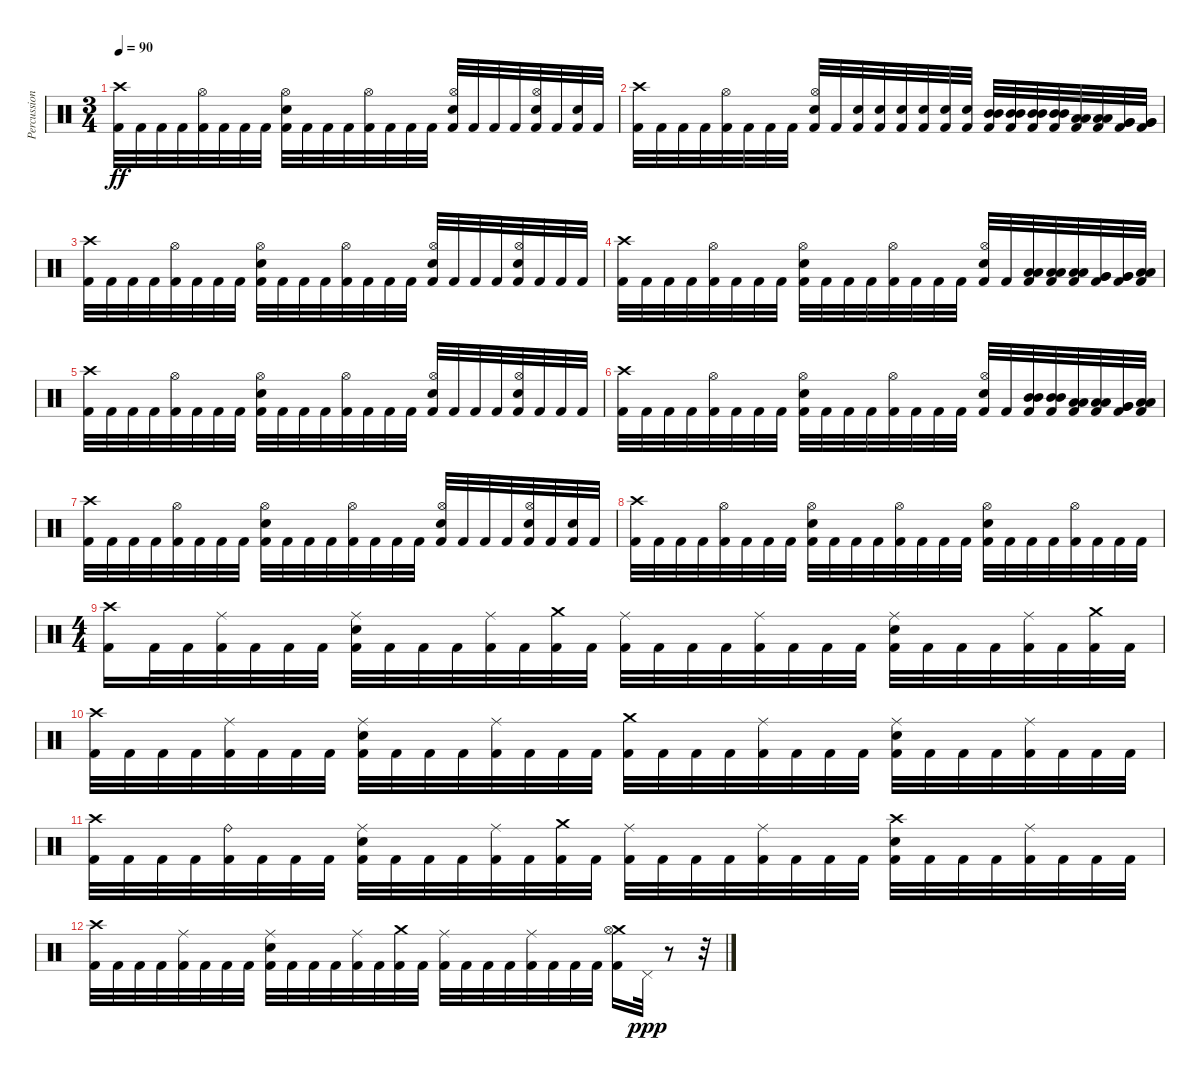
\track ("Percussion" "Percussion") {instrument percussion}
\staff {score}
\articulation defaults
\ts (3 4)
\tempo 90
\clef neutral
\ks c
("Crash high (hit)" "Kick (hit) 2").32{dy ff} "Kick (hit) 2".32 "Kick (hit) 2".32 "Kick (hit) 2".32 ("Hi-Hat (open)" "Kick (hit) 2").32 "Kick (hit) 2".32 "Kick (hit) 2".32 "Kick (hit) 2".32 ("Hi-Hat (open)" "Electric Snare (hit)" "Kick (hit) 2").32 "Kick (hit) 2".32 "Kick (hit) 2".32 "Kick (hit) 2".32 ("Hi-Hat (open)" "Kick (hit) 2").32 "Kick (hit) 2".32 "Kick (hit) 2".32 "Kick (hit) 2".32 ("Hi-Hat (open)" "Electric Snare (hit)" "Kick (hit) 2").32 "Kick (hit) 2".32 "Kick (hit) 2".32 "Kick (hit) 2".32 ("Hi-Hat (open)" "Electric Snare (hit)" "Kick (hit) 2").32 "Kick (hit) 2".32 ("Electric Snare (hit)" "Kick (hit) 2").32 "Kick (hit) 2".32 |
("Crash high (hit)" "Kick (hit) 2").32 "Kick (hit) 2".32 "Kick (hit) 2".32 "Kick (hit) 2".32 ("Hi-Hat (open)" "Kick (hit) 2").32 "Kick (hit) 2".32 "Kick (hit) 2".32 "Kick (hit) 2".32 ("Hi-Hat (open)" "Electric Snare (hit)" "Kick (hit) 2").32 "Kick (hit) 2".32 ("Electric Snare (hit)" "Kick (hit) 2").32 ("Electric Snare (hit)" "Kick (hit) 2").32 ("Electric Snare (hit)" "Kick (hit) 2").32 ("Electric Snare (hit)" "Kick (hit) 2").32 ("Electric Snare (hit)" "Kick (hit) 2").32 ("Electric Snare (hit)" "Kick (hit) 2").32 ("Mid Tom (hit)" "Mid Tom (hit)" "Kick (hit) 2").32 ("Mid Tom (hit)" "Mid Tom (hit)" "Kick (hit) 2").32 ("Mid Tom (hit)" "Mid Tom (hit)" "Kick (hit) 2").32 ("Mid Tom (hit)" "Mid Tom (hit)" "Kick (hit) 2").32 ("Low Tom (hit)" "Low Tom (hit)" "Kick (hit) 2").32 ("Low Tom (hit)" "Low Tom (hit)" "Kick (hit) 2").32 ("Very Low Tom (hit)" "Very Low Tom (hit)" "Kick (hit) 2").32 ("Very Low Tom (hit)" "Very Low Tom (hit)" "Kick (hit) 2").32 |
("Crash high (hit)" "Kick (hit) 2").32 "Kick (hit) 2".32 "Kick (hit) 2".32 "Kick (hit) 2".32 ("Hi-Hat (open)" "Kick (hit) 2").32 "Kick (hit) 2".32 "Kick (hit) 2".32 "Kick (hit) 2".32 ("Hi-Hat (open)" "Electric Snare (hit)" "Kick (hit) 2").32 "Kick (hit) 2".32 "Kick (hit) 2".32 "Kick (hit) 2".32 ("Hi-Hat (open)" "Kick (hit) 2").32 "Kick (hit) 2".32 "Kick (hit) 2".32 "Kick (hit) 2".32 ("Hi-Hat (open)" "Electric Snare (hit)" "Kick (hit) 2").32 "Kick (hit) 2".32 "Kick (hit) 2".32 "Kick (hit) 2".32 ("Hi-Hat (open)" "Electric Snare (hit)" "Kick (hit) 2").32 "Kick (hit) 2".32 "Kick (hit) 2".32 "Kick (hit) 2".32 |
("Crash high (hit)" "Kick (hit) 2").32 "Kick (hit) 2".32 "Kick (hit) 2".32 "Kick (hit) 2".32 ("Hi-Hat (open)" "Kick (hit) 2").32 "Kick (hit) 2".32 "Kick (hit) 2".32 "Kick (hit) 2".32 ("Hi-Hat (open)" "Electric Snare (hit)" "Kick (hit) 2").32 "Kick (hit) 2".32 "Kick (hit) 2".32 "Kick (hit) 2".32 ("Hi-Hat (open)" "Kick (hit) 2").32 "Kick (hit) 2".32 "Kick (hit) 2".32 "Kick (hit) 2".32 ("Hi-Hat (open)" "Electric Snare (hit)" "Kick (hit) 2").32 "Kick (hit) 2".32 ("Low Tom (hit)" "Low Tom (hit)" "Kick (hit) 2").32 ("Low Tom (hit)" "Low Tom (hit)" "Kick (hit) 2").32 ("Low Tom (hit)" "Low Tom (hit)" "Kick (hit) 2").32 ("Very Low Tom (hit)" "Very Low Tom (hit)" "Kick (hit) 2").32 ("Very Low Tom (hit)" "Very Low Tom (hit)" "Kick (hit) 2").32 ("Low Floor Tom (hit)" "Low Floor Tom (hit)" "Kick (hit) 2").32 |
("Crash high (hit)" "Kick (hit) 2").32 "Kick (hit) 2".32 "Kick (hit) 2".32 "Kick (hit) 2".32 ("Hi-Hat (open)" "Kick (hit) 2").32 "Kick (hit) 2".32 "Kick (hit) 2".32 "Kick (hit) 2".32 ("Hi-Hat (open)" "Electric Snare (hit)" "Kick (hit) 2").32 "Kick (hit) 2".32 "Kick (hit) 2".32 "Kick (hit) 2".32 ("Hi-Hat (open)" "Kick (hit) 2").32 "Kick (hit) 2".32 "Kick (hit) 2".32 "Kick (hit) 2".32 ("Hi-Hat (open)" "Electric Snare (hit)" "Kick (hit) 2").32 "Kick (hit) 2".32 "Kick (hit) 2".32 "Kick (hit) 2".32 ("Hi-Hat (open)" "Electric Snare (hit)" "Kick (hit) 2").32 "Kick (hit) 2".32 "Kick (hit) 2".32 "Kick (hit) 2".32 |
("Crash high (hit)" "Kick (hit) 2").32 "Kick (hit) 2".32 "Kick (hit) 2".32 "Kick (hit) 2".32 ("Hi-Hat (open)" "Kick (hit) 2").32 "Kick (hit) 2".32 "Kick (hit) 2".32 "Kick (hit) 2".32 ("Hi-Hat (open)" "Electric Snare (hit)" "Kick (hit) 2").32 "Kick (hit) 2".32 "Kick (hit) 2".32 "Kick (hit) 2".32 ("Hi-Hat (open)" "Kick (hit) 2").32 "Kick (hit) 2".32 "Kick (hit) 2".32 "Kick (hit) 2".32 ("Hi-Hat (open)" "Electric Snare (hit)" "Kick (hit) 2").32 "Kick (hit) 2".32 ("Mid Tom (hit)" "Mid Tom (hit)" "Kick (hit) 2").32 ("Mid Tom (hit)" "Mid Tom (hit)" "Kick (hit) 2").32 ("Low Tom (hit)" "Low Tom (hit)" "Kick (hit) 2").32 ("Low Tom (hit)" "Low Tom (hit)" "Kick (hit) 2").32 ("Very Low Tom (hit)" "Very Low Tom (hit)" "Kick (hit) 2").32 ("Low Floor Tom (hit)" "Low Floor Tom (hit)" "Kick (hit) 2").32 |
("Crash high (hit)" "Kick (hit) 2").32 "Kick (hit) 2".32 "Kick (hit) 2".32 "Kick (hit) 2".32 ("Hi-Hat (open)" "Kick (hit) 2").32 "Kick (hit) 2".32 "Kick (hit) 2".32 "Kick (hit) 2".32 ("Hi-Hat (open)" "Electric Snare (hit)" "Kick (hit) 2").32 "Kick (hit) 2".32 "Kick (hit) 2".32 "Kick (hit) 2".32 ("Hi-Hat (open)" "Kick (hit) 2").32 "Kick (hit) 2".32 "Kick (hit) 2".32 "Kick (hit) 2".32 ("Hi-Hat (open)" "Electric Snare (hit)" "Kick (hit) 2").32 "Kick (hit) 2".32 "Kick (hit) 2".32 "Kick (hit) 2".32 ("Hi-Hat (open)" "Electric Snare (hit)" "Kick (hit) 2").32 "Kick (hit) 2".32 ("Electric Snare (hit)" "Kick (hit) 2").32 "Kick (hit) 2".32 |
("Crash high (hit)" "Kick (hit) 2").32 "Kick (hit) 2".32 "Kick (hit) 2".32 "Kick (hit) 2".32 ("Hi-Hat (open)" "Kick (hit) 2").32 "Kick (hit) 2".32 "Kick (hit) 2".32 "Kick (hit) 2".32 ("Hi-Hat (open)" "Electric Snare (hit)" "Kick (hit) 2").32 "Kick (hit) 2".32 "Kick (hit) 2".32 "Kick (hit) 2".32 ("Hi-Hat (open)" "Kick (hit) 2").32 "Kick (hit) 2".32 "Kick (hit) 2".32 "Kick (hit) 2".32 ("Hi-Hat (open)" "Electric Snare (hit)" "Kick (hit) 2").32 "Kick (hit) 2".32 "Kick (hit) 2".32 "Kick (hit) 2".32 ("Hi-Hat (open)" "Kick (hit) 2").32 "Kick (hit) 2".32 "Kick (hit) 2".32 "Kick (hit) 2".32 |
\ts (4 4)
("Crash high (hit)" "Kick (hit) 2").16 "Kick (hit) 2".32 "Kick (hit) 2".32 ("Ride (middle)" "Kick (hit) 2").32 "Kick (hit) 2".32 "Kick (hit) 2".32 "Kick (hit) 2".32 ("Ride (middle)" "Electric Snare (hit)" "Kick (hit) 2").32 "Kick (hit) 2".32 "Kick (hit) 2".32 "Kick (hit) 2".32 ("Ride (middle)" "Kick (hit) 2").32 "Kick (hit) 2".32 ("Crash medium (hit)" "Kick (hit) 2").32 "Kick (hit) 2".32 ("Ride (middle)" "Kick (hit) 2").32 "Kick (hit) 2".32 "Kick (hit) 2".32 "Kick (hit) 2".32 ("Ride (middle)" "Kick (hit) 2").32 "Kick (hit) 2".32 "Kick (hit) 2".32 "Kick (hit) 2".32 ("Ride (middle)" "Electric Snare (hit)" "Kick (hit) 2").32 "Kick (hit) 2".32 "Kick (hit) 2".32 "Kick (hit) 2".32 ("Ride (middle)" "Kick (hit) 2").32 "Kick (hit) 2".32 ("Crash medium (hit)" "Kick (hit) 2").32 "Kick (hit) 2".32 |
("Crash high (hit)" "Kick (hit) 2").32 "Kick (hit) 2".32 "Kick (hit) 2".32 "Kick (hit) 2".32 ("Ride (middle)" "Kick (hit) 2").32 "Kick (hit) 2".32 "Kick (hit) 2".32 "Kick (hit) 2".32 ("Ride (middle)" "Electric Snare (hit)" "Kick (hit) 2").32 "Kick (hit) 2".32 "Kick (hit) 2".32 "Kick (hit) 2".32 ("Ride (middle)" "Kick (hit) 2").32 "Kick (hit) 2".32 "Kick (hit) 2".32 "Kick (hit) 2".32 ("Crash medium (hit)" "Kick (hit) 2").32 "Kick (hit) 2".32 "Kick (hit) 2".32 "Kick (hit) 2".32 ("Ride (middle)" "Kick (hit) 2").32 "Kick (hit) 2".32 "Kick (hit) 2".32 "Kick (hit) 2".32 ("Ride (middle)" "Electric Snare (hit)" "Kick (hit) 2").32 "Kick (hit) 2".32 "Kick (hit) 2".32 "Kick (hit) 2".32 ("Ride (middle)" "Kick (hit) 2").32 "Kick (hit) 2".32 "Kick (hit) 2".32 "Kick (hit) 2".32 |
("Crash high (hit)" "Kick (hit) 2").32 "Kick (hit) 2".32 "Kick (hit) 2".32 "Kick (hit) 2".32 ("Ride (bell)" "Kick (hit) 2").32 "Kick (hit) 2".32 "Kick (hit) 2".32 "Kick (hit) 2".32 ("Ride (middle)" "Electric Snare (hit)" "Kick (hit) 2").32 "Kick (hit) 2".32 "Kick (hit) 2".32 "Kick (hit) 2".32 ("Ride (middle)" "Kick (hit) 2").32 "Kick (hit) 2".32 ("Crash medium (hit)" "Kick (hit) 2").32 "Kick (hit) 2".32 ("Ride (middle)" "Kick (hit) 2").32 "Kick (hit) 2".32 "Kick (hit) 2".32 "Kick (hit) 2".32 ("Ride (middle)" "Kick (hit) 2").32 "Kick (hit) 2".32 "Kick (hit) 2".32 "Kick (hit) 2".32 ("Crash high (hit)" "Electric Snare (hit)" "Kick (hit) 2").32 "Kick (hit) 2".32 "Kick (hit) 2".32 "Kick (hit) 2".32 ("Ride (middle)" "Kick (hit) 2").32 "Kick (hit) 2".32 "Kick (hit) 2".32 "Kick (hit) 2".32 |
("Crash high (hit)" "Kick (hit) 2").32 "Kick (hit) 2".32 "Kick (hit) 2".32 "Kick (hit) 2".32 ("Ride (middle)" "Kick (hit) 2").32 "Kick (hit) 2".32 "Kick (hit) 2".32 "Kick (hit) 2".32 ("Ride (middle)" "Electric Snare (hit)" "Kick (hit) 2").32 "Kick (hit) 2".32 "Kick (hit) 2".32 "Kick (hit) 2".32 ("Ride (middle)" "Kick (hit) 2").32 "Kick (hit) 2".32 ("Crash medium (hit)" "Kick (hit) 2").32 "Kick (hit) 2".32 ("Ride (middle)" "Kick (hit) 2").32 "Kick (hit) 2".32 "Kick (hit) 2".32 "Kick (hit) 2".32 ("Ride (middle)" "Kick (hit) 2").32 "Kick (hit) 2".32 "Kick (hit) 2".32 "Kick (hit) 2".32 ("Crash medium (hit)" "Hi-Hat (open)" "Kick (hit) 2").16 "Pedal Hi-Hat (hit)".32{dy ppp} r.8 r.32
